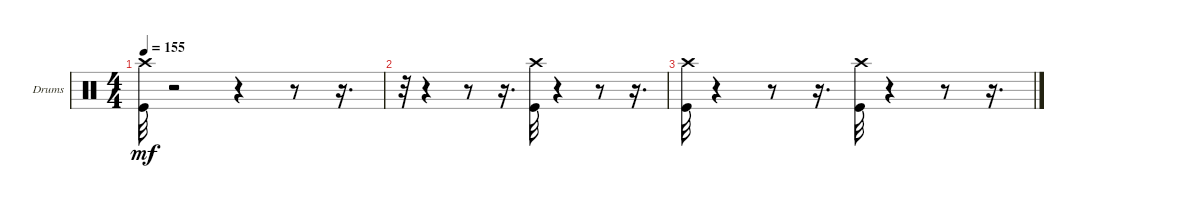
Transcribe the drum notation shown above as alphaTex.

\bracketExtendMode groupsimilarinstruments
\firstSystemTrackNameOrientation horizontal
\otherSystemsTrackNameOrientation horizontal
\track ("" "Drums") {instrument percussion}
\staff {score}
\articulation defaults
\ts (4 4)
\tempo 155
\clef neutral
\ks c
("Crash high (hit)" "Kick (hit)").32{dy mf} r.2 r.4 r.8 r.16{d} |
r.32 r.4 r.8 r.16{d} ("Crash high (hit)" "Kick (hit)").32 r.4 r.8 r.16{d} |
("Crash high (hit)" "Kick (hit)").32 r.4 r.8 r.16{d} ("Crash high (hit)" "Kick (hit)").32 r.4 r.8 r.16{d}
